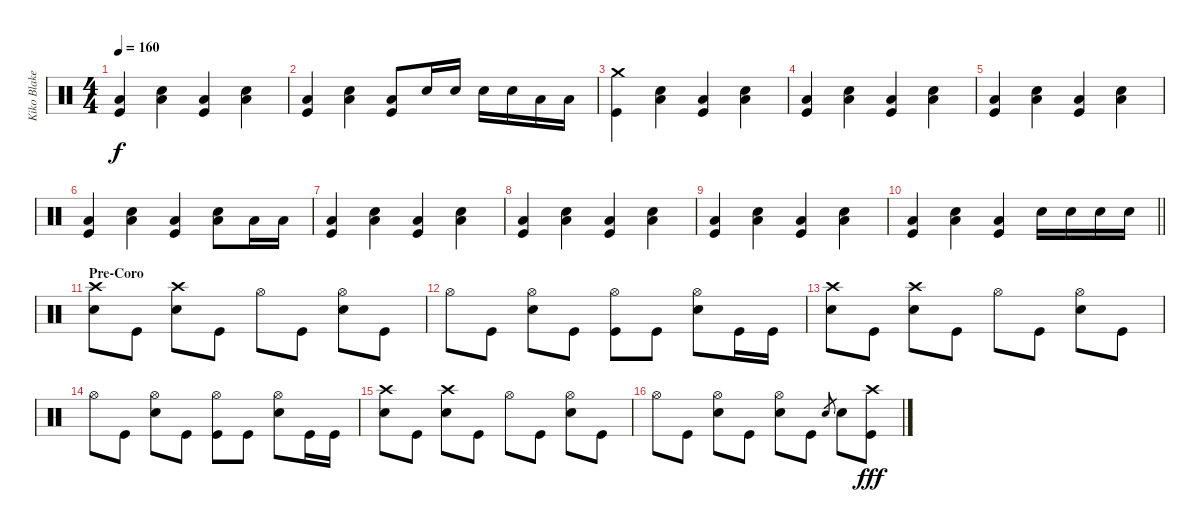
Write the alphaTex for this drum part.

\track ("Kiko Blake" "Kiko Blake") {instrument percussion}
\staff {score}
\articulation defaults
\ts (4 4)
\tempo 160
\clef neutral
\ks c
("Low Floor Tom (hit)" "Kick (hit)").4{dy f} ("Low Floor Tom (hit)" "Snare (hit) 2").4 ("Low Floor Tom (hit)" "Kick (hit)").4 ("Low Floor Tom (hit)" "Snare (hit) 2").4 |
("Low Floor Tom (hit)" "Kick (hit)").4 ("Low Floor Tom (hit)" "Snare (hit) 2").4 ("Low Floor Tom (hit)" "Kick (hit)").8 "Snare (hit) 2".16 "Snare (hit) 2".16 "Snare (hit) 2".16 "Snare (hit) 2".16 "Low Tom (hit)".16 "Low Tom (hit)".16 |
("Crash medium (hit)" "Kick (hit)").4 ("Low Floor Tom (hit)" "Snare (hit) 2").4 ("Low Floor Tom (hit)" "Kick (hit)").4 ("Low Floor Tom (hit)" "Snare (hit) 2").4 |
("Low Floor Tom (hit)" "Kick (hit)").4 ("Low Floor Tom (hit)" "Snare (hit) 2").4 ("Low Floor Tom (hit)" "Kick (hit)").4 ("Low Floor Tom (hit)" "Snare (hit) 2").4 |
("Low Floor Tom (hit)" "Kick (hit)").4 ("Low Floor Tom (hit)" "Snare (hit) 2").4 ("Low Floor Tom (hit)" "Kick (hit)").4 ("Low Floor Tom (hit)" "Snare (hit) 2").4 |
("Low Floor Tom (hit)" "Kick (hit)").4 ("Low Floor Tom (hit)" "Snare (hit) 2").4 ("Low Floor Tom (hit)" "Kick (hit)").4 ("Low Floor Tom (hit)" "Snare (hit) 2").8 "Low Floor Tom (hit)".16 "Low Floor Tom (hit)".16 |
("Low Floor Tom (hit)" "Kick (hit)").4 ("Low Floor Tom (hit)" "Snare (hit) 2").4 ("Low Floor Tom (hit)" "Kick (hit)").4 ("Low Floor Tom (hit)" "Snare (hit) 2").4 |
("Low Floor Tom (hit)" "Kick (hit)").4 ("Low Floor Tom (hit)" "Snare (hit) 2").4 ("Low Floor Tom (hit)" "Kick (hit)").4 ("Low Floor Tom (hit)" "Snare (hit) 2").4 |
("Low Floor Tom (hit)" "Kick (hit)").4 ("Low Floor Tom (hit)" "Snare (hit) 2").4 ("Low Floor Tom (hit)" "Kick (hit)").4 ("Low Floor Tom (hit)" "Snare (hit) 2").4 |
\barLineRight lightlight
("Low Floor Tom (hit)" "Kick (hit)").4 ("Low Floor Tom (hit)" "Snare (hit) 2").4 ("Low Floor Tom (hit)" "Kick (hit)").4 "Snare (hit) 2".16 "Snare (hit) 2".16 "Snare (hit) 2".16 "Snare (hit) 2".16 |
\section ("" "Pre-Coro")
("Crash high (hit)" "Snare (hit) 2").8 "Kick (hit)".8 ("Crash high (hit)" "Snare (hit) 2").8 "Kick (hit)".8 "Hi-Hat (open)".8 "Kick (hit)".8 ("Hi-Hat (open)" "Snare (hit) 2").8 "Kick (hit)".8 |
"Hi-Hat (open)".8 "Kick (hit)".8 ("Hi-Hat (open)" "Snare (hit) 2").8 "Kick (hit)".8 ("Hi-Hat (open)" "Kick (hit)").8 "Kick (hit)".8 ("Hi-Hat (open)" "Snare (hit) 2").8 "Kick (hit)".16 "Kick (hit)".16 |
("Crash high (hit)" "Snare (hit) 2").8 "Kick (hit)".8 ("Crash high (hit)" "Snare (hit) 2").8 "Kick (hit)".8 "Hi-Hat (open)".8 "Kick (hit)".8 ("Hi-Hat (open)" "Snare (hit) 2").8 "Kick (hit)".8 |
"Hi-Hat (open)".8 "Kick (hit)".8 ("Hi-Hat (open)" "Snare (hit) 2").8 "Kick (hit)".8 ("Hi-Hat (open)" "Kick (hit)").8 "Kick (hit)".8 ("Hi-Hat (open)" "Snare (hit) 2").8 "Kick (hit)".16 "Kick (hit)".16 |
("Crash high (hit)" "Snare (hit) 2").8 "Kick (hit)".8 ("Crash high (hit)" "Snare (hit) 2").8 "Kick (hit)".8 "Hi-Hat (open)".8 "Kick (hit)".8 ("Hi-Hat (open)" "Snare (hit) 2").8 "Kick (hit)".8 |
"Hi-Hat (open)".8 "Kick (hit)".8 ("Hi-Hat (open)" "Snare (hit) 2").8 "Kick (hit)".8 ("Hi-Hat (open)" "Snare (hit) 2").8 "Kick (hit)".8 "Snare (hit) 2".8{gr} "Snare (hit) 2".8 ("Crash high (hit)" "Kick (hit)").8{dy fff}
